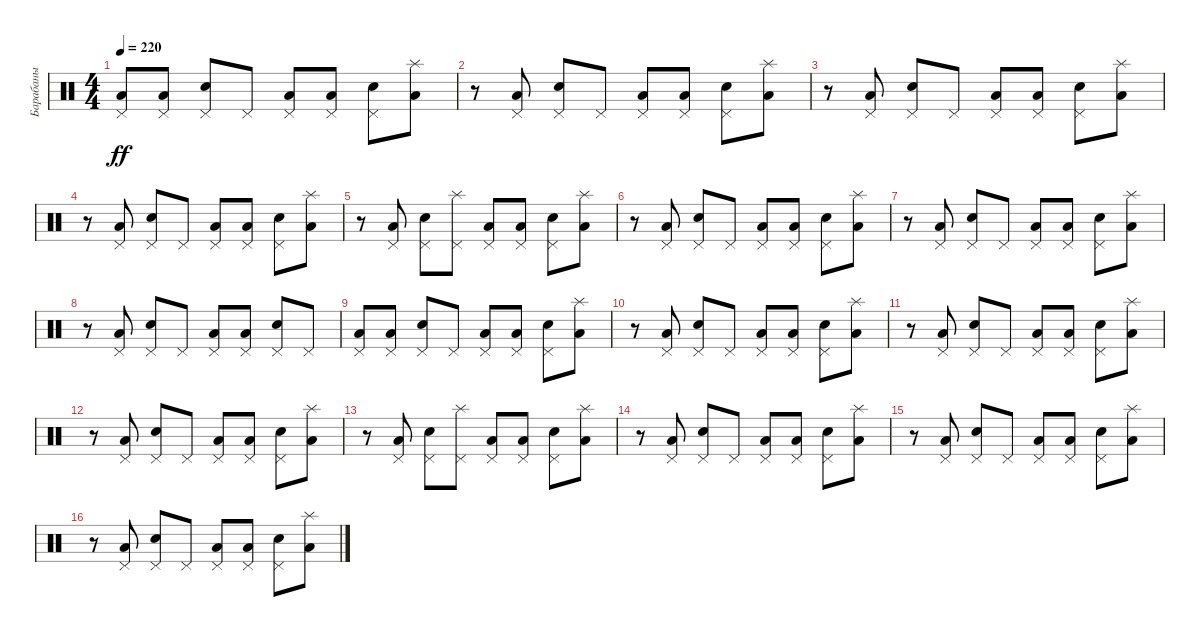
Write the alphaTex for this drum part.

\track ("Барабаны" "Барабаны") {instrument percussion}
\staff {score}
\articulation defaults
\ts (4 4)
\tempo 220
\clef neutral
\ks c
("Low Floor Tom (hit)" "Pedal Hi-Hat (hit)").8{dy ff} ("Low Floor Tom (hit)" "Pedal Hi-Hat (hit)").8 ("Electric Snare (hit)" "Pedal Hi-Hat (hit)").8 "Pedal Hi-Hat (hit)".8 ("Low Floor Tom (hit)" "Pedal Hi-Hat (hit)").8 ("Low Floor Tom (hit)" "Pedal Hi-Hat (hit)").8 ("Electric Snare (hit)" "Pedal Hi-Hat (hit)").8 ("Low Floor Tom (hit)" "Splash (hit)").8 |
r.8 ("Low Floor Tom (hit)" "Pedal Hi-Hat (hit)").8 ("Electric Snare (hit)" "Pedal Hi-Hat (hit)").8 "Pedal Hi-Hat (hit)".8 ("Low Floor Tom (hit)" "Pedal Hi-Hat (hit)").8 ("Low Floor Tom (hit)" "Pedal Hi-Hat (hit)").8 ("Electric Snare (hit)" "Pedal Hi-Hat (hit)").8 ("Low Floor Tom (hit)" "Splash (hit)").8 |
r.8 ("Low Floor Tom (hit)" "Pedal Hi-Hat (hit)").8 ("Electric Snare (hit)" "Pedal Hi-Hat (hit)").8 "Pedal Hi-Hat (hit)".8 ("Low Floor Tom (hit)" "Pedal Hi-Hat (hit)").8 ("Low Floor Tom (hit)" "Pedal Hi-Hat (hit)").8 ("Electric Snare (hit)" "Pedal Hi-Hat (hit)").8 ("Low Floor Tom (hit)" "Splash (hit)").8 |
r.8 ("Low Floor Tom (hit)" "Pedal Hi-Hat (hit)").8 ("Electric Snare (hit)" "Pedal Hi-Hat (hit)").8 "Pedal Hi-Hat (hit)".8 ("Low Floor Tom (hit)" "Pedal Hi-Hat (hit)").8 ("Low Floor Tom (hit)" "Pedal Hi-Hat (hit)").8 ("Electric Snare (hit)" "Pedal Hi-Hat (hit)").8 ("Low Floor Tom (hit)" "Splash (hit)").8 |
r.8 ("Low Floor Tom (hit)" "Pedal Hi-Hat (hit)").8 ("Electric Snare (hit)" "Pedal Hi-Hat (hit)").8 ("Pedal Hi-Hat (hit)" "Splash (hit)").8 ("Low Floor Tom (hit)" "Pedal Hi-Hat (hit)").8 ("Low Floor Tom (hit)" "Pedal Hi-Hat (hit)").8 ("Electric Snare (hit)" "Pedal Hi-Hat (hit)").8 ("Low Floor Tom (hit)" "Splash (hit)").8 |
r.8 ("Low Floor Tom (hit)" "Pedal Hi-Hat (hit)").8 ("Electric Snare (hit)" "Pedal Hi-Hat (hit)").8 "Pedal Hi-Hat (hit)".8 ("Low Floor Tom (hit)" "Pedal Hi-Hat (hit)").8 ("Low Floor Tom (hit)" "Pedal Hi-Hat (hit)").8 ("Electric Snare (hit)" "Pedal Hi-Hat (hit)").8 ("Low Floor Tom (hit)" "Splash (hit)").8 |
r.8 ("Low Floor Tom (hit)" "Pedal Hi-Hat (hit)").8 ("Electric Snare (hit)" "Pedal Hi-Hat (hit)").8 "Pedal Hi-Hat (hit)".8 ("Low Floor Tom (hit)" "Pedal Hi-Hat (hit)").8 ("Low Floor Tom (hit)" "Pedal Hi-Hat (hit)").8 ("Electric Snare (hit)" "Pedal Hi-Hat (hit)").8 ("Low Floor Tom (hit)" "Splash (hit)").8 |
r.8 ("Low Floor Tom (hit)" "Pedal Hi-Hat (hit)").8 ("Electric Snare (hit)" "Pedal Hi-Hat (hit)").8 "Pedal Hi-Hat (hit)".8 ("Low Floor Tom (hit)" "Pedal Hi-Hat (hit)").8 ("Low Floor Tom (hit)" "Pedal Hi-Hat (hit)").8 ("Electric Snare (hit)" "Pedal Hi-Hat (hit)").8 "Pedal Hi-Hat (hit)".8 |
("Low Floor Tom (hit)" "Pedal Hi-Hat (hit)").8 ("Low Floor Tom (hit)" "Pedal Hi-Hat (hit)").8 ("Electric Snare (hit)" "Pedal Hi-Hat (hit)").8 "Pedal Hi-Hat (hit)".8 ("Low Floor Tom (hit)" "Pedal Hi-Hat (hit)").8 ("Low Floor Tom (hit)" "Pedal Hi-Hat (hit)").8 ("Electric Snare (hit)" "Pedal Hi-Hat (hit)").8 ("Low Floor Tom (hit)" "Splash (hit)").8 |
r.8 ("Low Floor Tom (hit)" "Pedal Hi-Hat (hit)").8 ("Electric Snare (hit)" "Pedal Hi-Hat (hit)").8 "Pedal Hi-Hat (hit)".8 ("Low Floor Tom (hit)" "Pedal Hi-Hat (hit)").8 ("Low Floor Tom (hit)" "Pedal Hi-Hat (hit)").8 ("Electric Snare (hit)" "Pedal Hi-Hat (hit)").8 ("Low Floor Tom (hit)" "Splash (hit)").8 |
r.8 ("Low Floor Tom (hit)" "Pedal Hi-Hat (hit)").8 ("Electric Snare (hit)" "Pedal Hi-Hat (hit)").8 "Pedal Hi-Hat (hit)".8 ("Low Floor Tom (hit)" "Pedal Hi-Hat (hit)").8 ("Low Floor Tom (hit)" "Pedal Hi-Hat (hit)").8 ("Electric Snare (hit)" "Pedal Hi-Hat (hit)").8 ("Low Floor Tom (hit)" "Splash (hit)").8 |
r.8 ("Low Floor Tom (hit)" "Pedal Hi-Hat (hit)").8 ("Electric Snare (hit)" "Pedal Hi-Hat (hit)").8 "Pedal Hi-Hat (hit)".8 ("Low Floor Tom (hit)" "Pedal Hi-Hat (hit)").8 ("Low Floor Tom (hit)" "Pedal Hi-Hat (hit)").8 ("Electric Snare (hit)" "Pedal Hi-Hat (hit)").8 ("Low Floor Tom (hit)" "Splash (hit)").8 |
r.8 ("Low Floor Tom (hit)" "Pedal Hi-Hat (hit)").8 ("Electric Snare (hit)" "Pedal Hi-Hat (hit)").8 ("Pedal Hi-Hat (hit)" "Splash (hit)").8 ("Low Floor Tom (hit)" "Pedal Hi-Hat (hit)").8 ("Low Floor Tom (hit)" "Pedal Hi-Hat (hit)").8 ("Electric Snare (hit)" "Pedal Hi-Hat (hit)").8 ("Low Floor Tom (hit)" "Splash (hit)").8 |
r.8 ("Low Floor Tom (hit)" "Pedal Hi-Hat (hit)").8 ("Electric Snare (hit)" "Pedal Hi-Hat (hit)").8 "Pedal Hi-Hat (hit)".8 ("Low Floor Tom (hit)" "Pedal Hi-Hat (hit)").8 ("Low Floor Tom (hit)" "Pedal Hi-Hat (hit)").8 ("Electric Snare (hit)" "Pedal Hi-Hat (hit)").8 ("Low Floor Tom (hit)" "Splash (hit)").8 |
r.8 ("Low Floor Tom (hit)" "Pedal Hi-Hat (hit)").8 ("Electric Snare (hit)" "Pedal Hi-Hat (hit)").8 "Pedal Hi-Hat (hit)".8 ("Low Floor Tom (hit)" "Pedal Hi-Hat (hit)").8 ("Low Floor Tom (hit)" "Pedal Hi-Hat (hit)").8 ("Electric Snare (hit)" "Pedal Hi-Hat (hit)").8 ("Low Floor Tom (hit)" "Splash (hit)").8 |
r.8 ("Low Floor Tom (hit)" "Pedal Hi-Hat (hit)").8 ("Electric Snare (hit)" "Pedal Hi-Hat (hit)").8 "Pedal Hi-Hat (hit)".8 ("Low Floor Tom (hit)" "Pedal Hi-Hat (hit)").8 ("Low Floor Tom (hit)" "Pedal Hi-Hat (hit)").8 ("Electric Snare (hit)" "Pedal Hi-Hat (hit)").8 ("Low Floor Tom (hit)" "Splash (hit)").8
